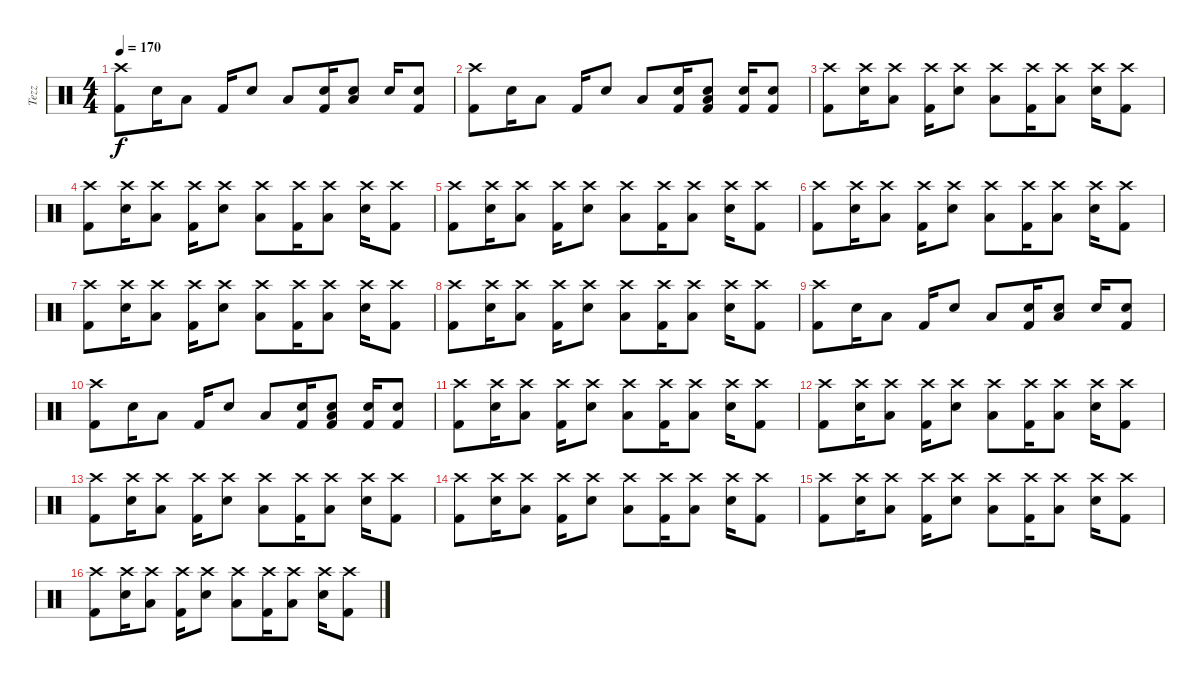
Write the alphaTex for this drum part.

\track ("Tezz" "Tezz") {instrument percussion}
\staff {score}
\articulation defaults
\ts (4 4)
\tempo 170
\clef neutral
\ks c
("Kick (hit) 2" "Crash high (hit)").8{dy f} "Snare (hit) 2".16 "Low Tom (hit)".8 "Kick (hit) 2".16 "Snare (hit) 2".8 "Low Tom (hit)".8 ("Kick (hit) 2" "Snare (hit) 2").16 ("Low Tom (hit)" "Electric Snare (hit)").8 "Snare (hit) 2".16 ("Kick (hit) 2" "Electric Snare (hit)").8 |
("Kick (hit) 2" "Crash high (hit)").8 "Snare (hit) 2".16 "Low Tom (hit)".8 "Kick (hit) 2".16 "Snare (hit) 2".8 "Low Tom (hit)".8 ("Snare (hit) 2" "Kick (hit) 2").16 ("Low Tom (hit)" "Snare (hit) 2" "Kick (hit) 2").8 ("Snare (hit) 2" "Kick (hit) 2").16 ("Snare (hit) 2" "Kick (hit) 2").8 |
("Kick (hit) 2" "Crash high (hit)").8 ("Snare (hit) 2" "Crash high (hit)").16 ("Low Tom (hit)" "Crash high (hit)").8 ("Kick (hit) 2" "Crash high (hit)").16 ("Snare (hit) 2" "Crash high (hit)").8 ("Low Tom (hit)" "Crash high (hit)").8 ("Kick (hit) 2" "Crash high (hit)").16 ("Low Tom (hit)" "Crash high (hit)").8 ("Snare (hit) 2" "Crash high (hit)").16 ("Kick (hit) 2" "Crash high (hit)").8 |
("Kick (hit) 2" "Crash high (hit)").8 ("Snare (hit) 2" "Crash high (hit)").16 ("Low Tom (hit)" "Crash high (hit)").8 ("Kick (hit) 2" "Crash high (hit)").16 ("Snare (hit) 2" "Crash high (hit)").8 ("Low Tom (hit)" "Crash high (hit)").8 ("Kick (hit) 2" "Crash high (hit)").16 ("Low Tom (hit)" "Crash high (hit)").8 ("Snare (hit) 2" "Crash high (hit)").16 ("Kick (hit) 2" "Crash high (hit)").8 |
("Kick (hit) 2" "Crash high (hit)").8 ("Snare (hit) 2" "Crash high (hit)").16 ("Low Tom (hit)" "Crash high (hit)").8 ("Kick (hit) 2" "Crash high (hit)").16 ("Snare (hit) 2" "Crash high (hit)").8 ("Low Tom (hit)" "Crash high (hit)").8 ("Kick (hit) 2" "Crash high (hit)").16 ("Low Tom (hit)" "Crash high (hit)").8 ("Snare (hit) 2" "Crash high (hit)").16 ("Kick (hit) 2" "Crash high (hit)").8 |
("Kick (hit) 2" "Crash high (hit)").8 ("Snare (hit) 2" "Crash high (hit)").16 ("Low Tom (hit)" "Crash high (hit)").8 ("Kick (hit) 2" "Crash high (hit)").16 ("Snare (hit) 2" "Crash high (hit)").8 ("Low Tom (hit)" "Crash high (hit)").8 ("Kick (hit) 2" "Crash high (hit)").16 ("Low Tom (hit)" "Crash high (hit)").8 ("Snare (hit) 2" "Crash high (hit)").16 ("Kick (hit) 2" "Crash high (hit)").8 |
("Kick (hit) 2" "Crash high (hit)").8 ("Snare (hit) 2" "Crash high (hit)").16 ("Low Tom (hit)" "Crash high (hit)").8 ("Kick (hit) 2" "Crash high (hit)").16 ("Snare (hit) 2" "Crash high (hit)").8 ("Low Tom (hit)" "Crash high (hit)").8 ("Kick (hit) 2" "Crash high (hit)").16 ("Low Tom (hit)" "Crash high (hit)").8 ("Snare (hit) 2" "Crash high (hit)").16 ("Kick (hit) 2" "Crash high (hit)").8 |
("Kick (hit) 2" "Crash high (hit)").8 ("Snare (hit) 2" "Crash high (hit)").16 ("Low Tom (hit)" "Crash high (hit)").8 ("Kick (hit) 2" "Crash high (hit)").16 ("Snare (hit) 2" "Crash high (hit)").8 ("Low Tom (hit)" "Crash high (hit)").8 ("Kick (hit) 2" "Crash high (hit)").16 ("Low Tom (hit)" "Crash high (hit)").8 ("Snare (hit) 2" "Crash high (hit)").16 ("Kick (hit) 2" "Crash high (hit)").8 |
("Kick (hit) 2" "Crash high (hit)").8 "Snare (hit) 2".16 "Low Tom (hit)".8 "Kick (hit) 2".16 "Snare (hit) 2".8 "Low Tom (hit)".8 ("Kick (hit) 2" "Snare (hit) 2").16 ("Low Tom (hit)" "Electric Snare (hit)").8 "Snare (hit) 2".16 ("Kick (hit) 2" "Electric Snare (hit)").8 |
("Kick (hit) 2" "Crash high (hit)").8 "Snare (hit) 2".16 "Low Tom (hit)".8 "Kick (hit) 2".16 "Snare (hit) 2".8 "Low Tom (hit)".8 ("Snare (hit) 2" "Kick (hit) 2").16 ("Low Tom (hit)" "Snare (hit) 2" "Kick (hit) 2").8 ("Snare (hit) 2" "Kick (hit) 2").16 ("Snare (hit) 2" "Kick (hit) 2").8 |
("Kick (hit) 2" "Crash high (hit)").8 ("Snare (hit) 2" "Crash high (hit)").16 ("Low Tom (hit)" "Crash high (hit)").8 ("Kick (hit) 2" "Crash high (hit)").16 ("Snare (hit) 2" "Crash high (hit)").8 ("Low Tom (hit)" "Crash high (hit)").8 ("Kick (hit) 2" "Crash high (hit)").16 ("Low Tom (hit)" "Crash high (hit)").8 ("Snare (hit) 2" "Crash high (hit)").16 ("Kick (hit) 2" "Crash high (hit)").8 |
("Kick (hit) 2" "Crash high (hit)").8 ("Snare (hit) 2" "Crash high (hit)").16 ("Low Tom (hit)" "Crash high (hit)").8 ("Kick (hit) 2" "Crash high (hit)").16 ("Snare (hit) 2" "Crash high (hit)").8 ("Low Tom (hit)" "Crash high (hit)").8 ("Kick (hit) 2" "Crash high (hit)").16 ("Low Tom (hit)" "Crash high (hit)").8 ("Snare (hit) 2" "Crash high (hit)").16 ("Kick (hit) 2" "Crash high (hit)").8 |
("Kick (hit) 2" "Crash high (hit)").8 ("Snare (hit) 2" "Crash high (hit)").16 ("Low Tom (hit)" "Crash high (hit)").8 ("Kick (hit) 2" "Crash high (hit)").16 ("Snare (hit) 2" "Crash high (hit)").8 ("Low Tom (hit)" "Crash high (hit)").8 ("Kick (hit) 2" "Crash high (hit)").16 ("Low Tom (hit)" "Crash high (hit)").8 ("Snare (hit) 2" "Crash high (hit)").16 ("Kick (hit) 2" "Crash high (hit)").8 |
("Kick (hit) 2" "Crash high (hit)").8 ("Snare (hit) 2" "Crash high (hit)").16 ("Low Tom (hit)" "Crash high (hit)").8 ("Kick (hit) 2" "Crash high (hit)").16 ("Snare (hit) 2" "Crash high (hit)").8 ("Low Tom (hit)" "Crash high (hit)").8 ("Kick (hit) 2" "Crash high (hit)").16 ("Low Tom (hit)" "Crash high (hit)").8 ("Snare (hit) 2" "Crash high (hit)").16 ("Kick (hit) 2" "Crash high (hit)").8 |
("Kick (hit) 2" "Crash high (hit)").8 ("Snare (hit) 2" "Crash high (hit)").16 ("Low Tom (hit)" "Crash high (hit)").8 ("Kick (hit) 2" "Crash high (hit)").16 ("Snare (hit) 2" "Crash high (hit)").8 ("Low Tom (hit)" "Crash high (hit)").8 ("Kick (hit) 2" "Crash high (hit)").16 ("Low Tom (hit)" "Crash high (hit)").8 ("Snare (hit) 2" "Crash high (hit)").16 ("Kick (hit) 2" "Crash high (hit)").8 |
("Kick (hit) 2" "Crash high (hit)").8 ("Snare (hit) 2" "Crash high (hit)").16 ("Low Tom (hit)" "Crash high (hit)").8 ("Kick (hit) 2" "Crash high (hit)").16 ("Snare (hit) 2" "Crash high (hit)").8 ("Low Tom (hit)" "Crash high (hit)").8 ("Kick (hit) 2" "Crash high (hit)").16 ("Low Tom (hit)" "Crash high (hit)").8 ("Snare (hit) 2" "Crash high (hit)").16 ("Kick (hit) 2" "Crash high (hit)").8
